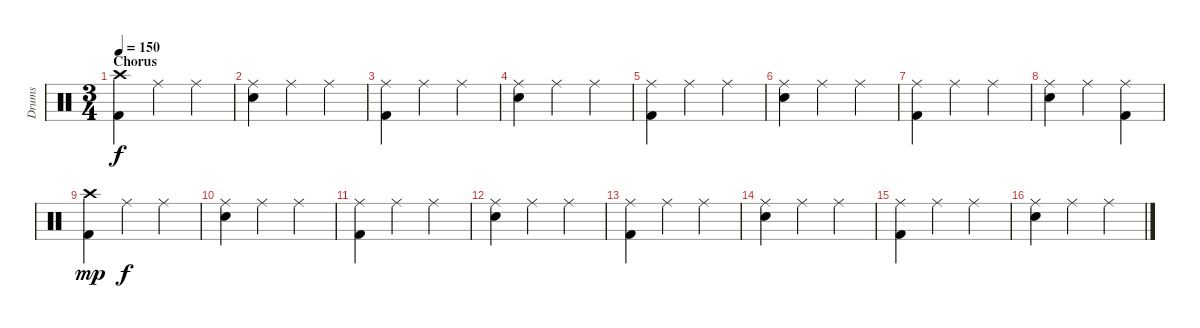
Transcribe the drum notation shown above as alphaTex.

\track ("Drums" "Drums") {instrument percussion}
\staff {score}
\articulation defaults
\ts (3 4)
\section ("" "Chorus")
\tempo 150
\clef neutral
\ks c
("Crash high (hit)" "Kick (hit) 2").4{dy f} "Ride (middle)".4 "Ride (middle)".4 |
("Ride (middle)" "Electric Snare (hit)").4 "Ride (middle)".4 "Ride (middle)".4 |
("Ride (middle)" "Kick (hit) 2").4 "Ride (middle)".4 "Ride (middle)".4 |
("Ride (middle)" "Electric Snare (hit)").4 "Ride (middle)".4 "Ride (middle)".4 |
("Ride (middle)" "Kick (hit) 2").4 "Ride (middle)".4 "Ride (middle)".4 |
("Ride (middle)" "Electric Snare (hit)").4 "Ride (middle)".4 "Ride (middle)".4 |
("Ride (middle)" "Kick (hit) 2").4 "Ride (middle)".4 "Ride (middle)".4 |
("Ride (middle)" "Electric Snare (hit)").4 "Ride (middle)".4 ("Ride (middle)" "Kick (hit) 2").4 |
("Crash high (hit)" "Kick (hit) 2").4{dy mp} "Ride (middle)".4{dy f} "Ride (middle)".4 |
("Ride (middle)" "Electric Snare (hit)").4 "Ride (middle)".4 "Ride (middle)".4 |
("Ride (middle)" "Kick (hit) 2").4 "Ride (middle)".4 "Ride (middle)".4 |
("Ride (middle)" "Electric Snare (hit)").4 "Ride (middle)".4 "Ride (middle)".4 |
("Ride (middle)" "Kick (hit) 2").4 "Ride (middle)".4 "Ride (middle)".4 |
("Ride (middle)" "Electric Snare (hit)").4 "Ride (middle)".4 "Ride (middle)".4 |
("Ride (middle)" "Kick (hit) 2").4 "Ride (middle)".4 "Ride (middle)".4 |
("Ride (middle)" "Electric Snare (hit)").4 "Ride (middle)".4 "Ride (middle)".4
